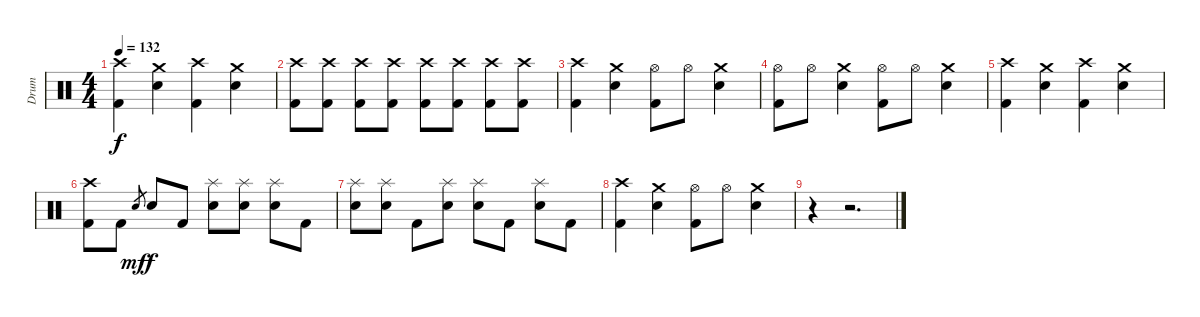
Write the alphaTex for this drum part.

\track ("Drum" "Drum") {instrument percussion}
\staff {score}
\articulation defaults
\ts (4 4)
\tempo 132
\clef neutral
\ks c
("Crash high (hit)" "Kick (hit) 2").4{dy f} ("Crash medium (hit)" "Snare (hit) 2").4 ("Crash high (hit)" "Kick (hit) 2").4 ("Crash medium (hit)" "Snare (hit) 2").4 |
("Crash high (hit)" "Kick (hit) 2").8 ("Crash high (hit)" "Kick (hit) 2").8 ("Crash high (hit)" "Kick (hit) 2").8 ("Crash high (hit)" "Kick (hit) 2").8 ("Crash high (hit)" "Kick (hit) 2").8 ("Crash high (hit)" "Kick (hit) 2").8 ("Crash high (hit)" "Kick (hit) 2").8 ("Crash high (hit)" "Kick (hit) 2").8 |
("Crash high (hit)" "Kick (hit) 2").4 ("Crash medium (hit)" "Snare (hit) 2").4 ("Hi-Hat (open)" "Kick (hit) 2").8 "Hi-Hat (open)".8 ("Crash medium (hit)" "Snare (hit) 2").4 |
("Hi-Hat (open)" "Kick (hit) 2").8 "Hi-Hat (open)".8 ("Crash medium (hit)" "Snare (hit) 2").4 ("Hi-Hat (open)" "Kick (hit) 2").8 "Hi-Hat (open)".8 ("Crash medium (hit)" "Snare (hit) 2").4 |
("Crash high (hit)" "Kick (hit) 2").4 ("Crash medium (hit)" "Snare (hit) 2").4 ("Crash high (hit)" "Kick (hit) 2").4 ("Crash medium (hit)" "Snare (hit) 2").4 |
("Crash high (hit)" "Kick (hit) 2").8 "Kick (hit) 2".8 "Snare (hit)".8{gr dy mf} "Snare (hit) 2".8{dy f} "Kick (hit) 2".8 ("Splash (hit)" "Snare (hit) 2").8 ("Splash (hit)" "Snare (hit) 2").8 ("Splash (hit)" "Snare (hit) 2").8 "Kick (hit) 2".8 |
("Splash (hit)" "Snare (hit) 2").8 ("Splash (hit)" "Snare (hit) 2").8 "Kick (hit) 2".8 ("Splash (hit)" "Snare (hit) 2").8 ("Splash (hit)" "Snare (hit) 2").8 "Kick (hit) 2".8 ("Splash (hit)" "Snare (hit) 2").8 "Kick (hit) 2".8 |
("Crash high (hit)" "Kick (hit) 2").4 ("Crash medium (hit)" "Snare (hit) 2").4 ("Hi-Hat (open)" "Kick (hit) 2").8 "Hi-Hat (open)".8 ("Crash medium (hit)" "Snare (hit) 2").4 |
r.4 r.2{d}
